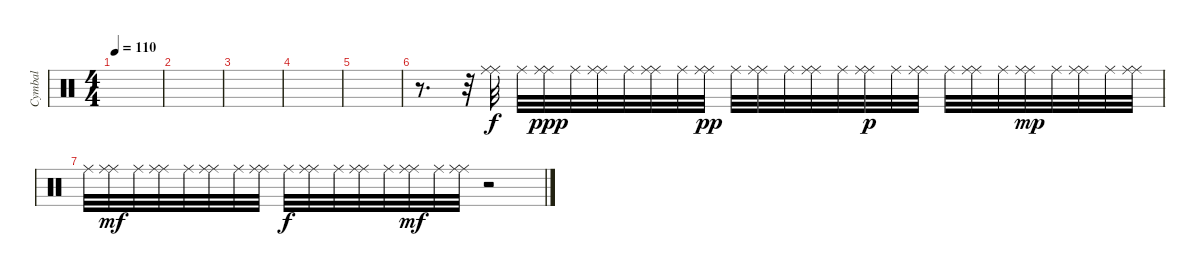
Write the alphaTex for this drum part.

\track ("Cymbal" "Cymbal") {instrument percussion}
\staff {score}
\articulation defaults
\ts (4 4)
\tempo 110
\clef neutral
\ks c
|
|
|
|
|
r.8{d} r.32 ("Ride (middle)" "Ride (middle)").32 "Ride (middle)".32 ("Ride (middle)" "Ride (middle)").32{dy ppp} "Ride (middle)".32 ("Ride (middle)" "Ride (middle)").32 "Ride (middle)".32 ("Ride (middle)" "Ride (middle)").32 "Ride (middle)".32 ("Ride (middle)" "Ride (middle)").32{dy pp} "Ride (middle)".32 ("Ride (middle)" "Ride (middle)").32 "Ride (middle)".32 ("Ride (middle)" "Ride (middle)").32 "Ride (middle)".32 ("Ride (middle)" "Ride (middle)").32{dy p} "Ride (middle)".32 ("Ride (middle)" "Ride (middle)").32 "Ride (middle)".32 ("Ride (middle)" "Ride (middle)").32 "Ride (middle)".32 ("Ride (middle)" "Ride (middle)").32{dy mp} "Ride (middle)".32 ("Ride (middle)" "Ride (middle)").32 "Ride (middle)".32 ("Ride (middle)" "Ride (middle)").32 |
"Ride (middle)".32 ("Ride (middle)" "Ride (middle)").32{dy mf} "Ride (middle)".32 ("Ride (middle)" "Ride (middle)").32 "Ride (middle)".32 ("Ride (middle)" "Ride (middle)").32 "Ride (middle)".32 ("Ride (middle)" "Ride (middle)").32 "Ride (middle)".32{dy f} ("Ride (middle)" "Ride (middle)").32 "Ride (middle)".32 ("Ride (middle)" "Ride (middle)").32 "Ride (middle)".32 ("Ride (middle)" "Ride (middle)").32{dy mf} "Ride (middle)".32 ("Ride (middle)" "Ride (middle)").32 r.2
